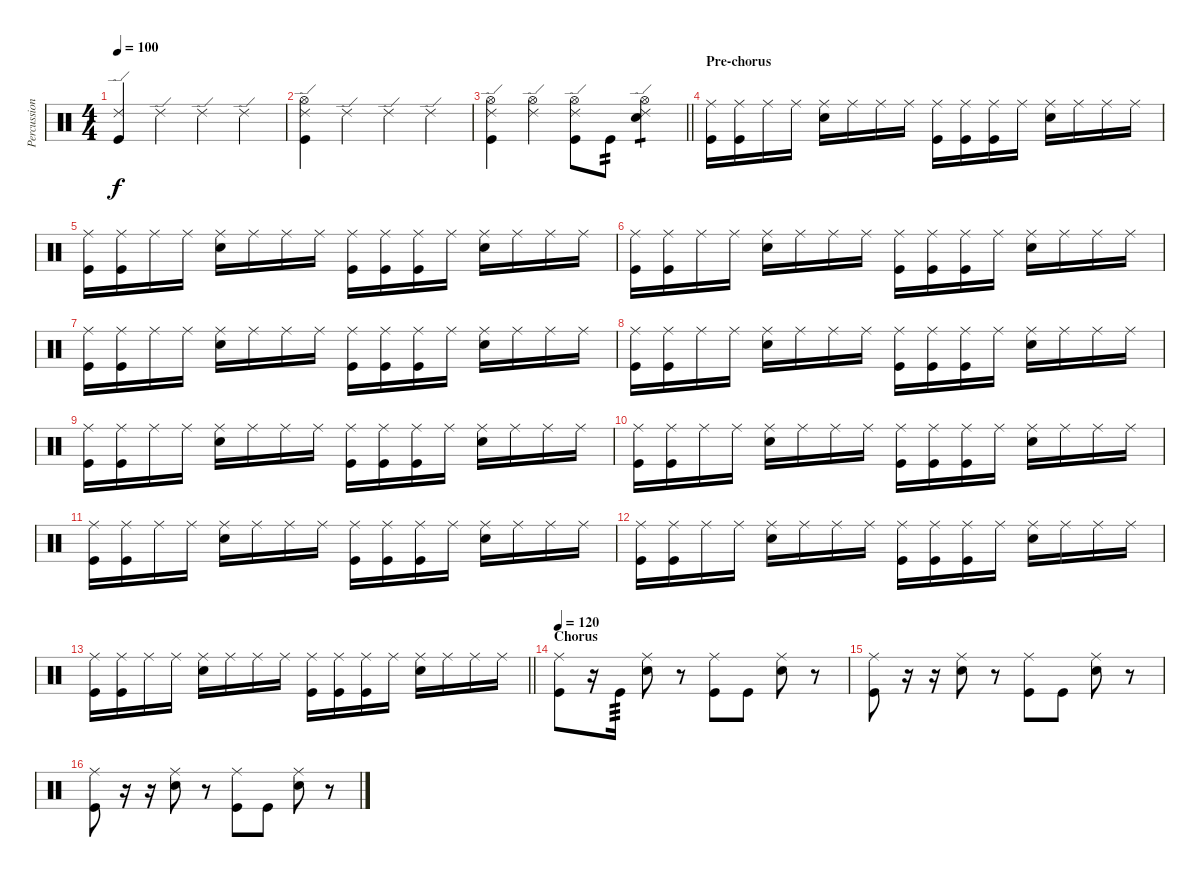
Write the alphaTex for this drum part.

\track ("Percussion" "Percussion") {instrument percussion}
\staff {score}
\articulation defaults
\ts (4 4)
\tempo 100
\clef neutral
\ks c
("Ride (edge) 2" "Kick (hit)").4{dy f} "Ride (edge) 2".4 "Ride (edge) 2".4 "Ride (edge) 2".4 |
("Hi-Hat (open)" "Ride (edge) 2" "Kick (hit)").4 "Ride (edge) 2".4 "Ride (edge) 2".4 "Ride (edge) 2".4 |
\barLineRight lightlight
("Hi-Hat (open)" "Ride (edge) 2" "Kick (hit)").4 ("Hi-Hat (open)" "Ride (edge) 2").4 ("Hi-Hat (open)" "Ride (edge) 2" "Kick (hit)").8 "Kick (hit)".8{tp 2} ("Hi-Hat (open)" "Ride (edge) 2" "Electric Snare (hit)").4{tp 1} |
\section ("" "Pre-chorus")
("Ride (middle)" "Kick (hit)").16 ("Ride (middle)" "Kick (hit)").16 "Ride (middle)".16 "Ride (middle)".16 ("Ride (middle)" "Electric Snare (hit)").16 "Ride (middle)".16 "Ride (middle)".16 "Ride (middle)".16 ("Ride (middle)" "Kick (hit)").16 ("Ride (middle)" "Kick (hit)").16 ("Ride (middle)" "Kick (hit)").16 "Ride (middle)".16 ("Ride (middle)" "Electric Snare (hit)").16 "Ride (middle)".16 "Ride (middle)".16 "Ride (middle)".16 |
("Ride (middle)" "Kick (hit)").16 ("Ride (middle)" "Kick (hit)").16 "Ride (middle)".16 "Ride (middle)".16 ("Ride (middle)" "Electric Snare (hit)").16 "Ride (middle)".16 "Ride (middle)".16 "Ride (middle)".16 ("Ride (middle)" "Kick (hit)").16 ("Ride (middle)" "Kick (hit)").16 ("Ride (middle)" "Kick (hit)").16 "Ride (middle)".16 ("Ride (middle)" "Electric Snare (hit)").16 "Ride (middle)".16 "Ride (middle)".16 "Ride (middle)".16 |
("Ride (middle)" "Kick (hit)").16 ("Ride (middle)" "Kick (hit)").16 "Ride (middle)".16 "Ride (middle)".16 ("Ride (middle)" "Electric Snare (hit)").16 "Ride (middle)".16 "Ride (middle)".16 "Ride (middle)".16 ("Ride (middle)" "Kick (hit)").16 ("Ride (middle)" "Kick (hit)").16 ("Ride (middle)" "Kick (hit)").16 "Ride (middle)".16 ("Ride (middle)" "Electric Snare (hit)").16 "Ride (middle)".16 "Ride (middle)".16 "Ride (middle)".16 |
("Ride (middle)" "Kick (hit)").16 ("Ride (middle)" "Kick (hit)").16 "Ride (middle)".16 "Ride (middle)".16 ("Ride (middle)" "Electric Snare (hit)").16 "Ride (middle)".16 "Ride (middle)".16 "Ride (middle)".16 ("Ride (middle)" "Kick (hit)").16 ("Ride (middle)" "Kick (hit)").16 ("Ride (middle)" "Kick (hit)").16 "Ride (middle)".16 ("Ride (middle)" "Electric Snare (hit)").16 "Ride (middle)".16 "Ride (middle)".16 "Ride (middle)".16 |
("Ride (middle)" "Kick (hit)").16 ("Ride (middle)" "Kick (hit)").16 "Ride (middle)".16 "Ride (middle)".16 ("Ride (middle)" "Electric Snare (hit)").16 "Ride (middle)".16 "Ride (middle)".16 "Ride (middle)".16 ("Ride (middle)" "Kick (hit)").16 ("Ride (middle)" "Kick (hit)").16 ("Ride (middle)" "Kick (hit)").16 "Ride (middle)".16 ("Ride (middle)" "Electric Snare (hit)").16 "Ride (middle)".16 "Ride (middle)".16 "Ride (middle)".16 |
("Ride (middle)" "Kick (hit)").16 ("Ride (middle)" "Kick (hit)").16 "Ride (middle)".16 "Ride (middle)".16 ("Ride (middle)" "Electric Snare (hit)").16 "Ride (middle)".16 "Ride (middle)".16 "Ride (middle)".16 ("Ride (middle)" "Kick (hit)").16 ("Ride (middle)" "Kick (hit)").16 ("Ride (middle)" "Kick (hit)").16 "Ride (middle)".16 ("Ride (middle)" "Electric Snare (hit)").16 "Ride (middle)".16 "Ride (middle)".16 "Ride (middle)".16 |
("Ride (middle)" "Kick (hit)").16 ("Ride (middle)" "Kick (hit)").16 "Ride (middle)".16 "Ride (middle)".16 ("Ride (middle)" "Electric Snare (hit)").16 "Ride (middle)".16 "Ride (middle)".16 "Ride (middle)".16 ("Ride (middle)" "Kick (hit)").16 ("Ride (middle)" "Kick (hit)").16 ("Ride (middle)" "Kick (hit)").16 "Ride (middle)".16 ("Ride (middle)" "Electric Snare (hit)").16 "Ride (middle)".16 "Ride (middle)".16 "Ride (middle)".16 |
("Ride (middle)" "Kick (hit)").16 ("Ride (middle)" "Kick (hit)").16 "Ride (middle)".16 "Ride (middle)".16 ("Ride (middle)" "Electric Snare (hit)").16 "Ride (middle)".16 "Ride (middle)".16 "Ride (middle)".16 ("Ride (middle)" "Kick (hit)").16 ("Ride (middle)" "Kick (hit)").16 ("Ride (middle)" "Kick (hit)").16 "Ride (middle)".16 ("Ride (middle)" "Electric Snare (hit)").16 "Ride (middle)".16 "Ride (middle)".16 "Ride (middle)".16 |
("Ride (middle)" "Kick (hit)").16 ("Ride (middle)" "Kick (hit)").16 "Ride (middle)".16 "Ride (middle)".16 ("Ride (middle)" "Electric Snare (hit)").16 "Ride (middle)".16 "Ride (middle)".16 "Ride (middle)".16 ("Ride (middle)" "Kick (hit)").16 ("Ride (middle)" "Kick (hit)").16 ("Ride (middle)" "Kick (hit)").16 "Ride (middle)".16 ("Ride (middle)" "Electric Snare (hit)").16 "Ride (middle)".16 "Ride (middle)".16 "Ride (middle)".16 |
\barLineRight lightlight
("Ride (middle)" "Kick (hit)").16 ("Ride (middle)" "Kick (hit)").16 "Ride (middle)".16 "Ride (middle)".16 ("Ride (middle)" "Electric Snare (hit)").16 "Ride (middle)".16 "Ride (middle)".16 "Ride (middle)".16 ("Ride (middle)" "Kick (hit)").16 ("Ride (middle)" "Kick (hit)").16 ("Ride (middle)" "Kick (hit)").16 "Ride (middle)".16 ("Ride (middle)" "Electric Snare (hit)").16 "Ride (middle)".16 "Ride (middle)".16 "Ride (middle)".16 |
\section ("" "Chorus")
\tempo 120
("Ride (middle)" "Kick (hit)").8 r.16 "Kick (hit)".16{tp 3} ("Ride (middle)" "Electric Snare (hit)").8 r.8 ("Ride (middle)" "Kick (hit)").8 "Kick (hit)".8 ("Ride (middle)" "Electric Snare (hit)").8 r.8 |
("Ride (middle)" "Kick (hit)").8 r.16 r.16 ("Ride (middle)" "Electric Snare (hit)").8 r.8 ("Ride (middle)" "Kick (hit)").8 "Kick (hit)".8 ("Ride (middle)" "Electric Snare (hit)").8 r.8 |
("Ride (middle)" "Kick (hit)").8 r.16 r.16 ("Ride (middle)" "Electric Snare (hit)").8 r.8 ("Ride (middle)" "Kick (hit)").8 "Kick (hit)".8 ("Ride (middle)" "Electric Snare (hit)").8 r.8
